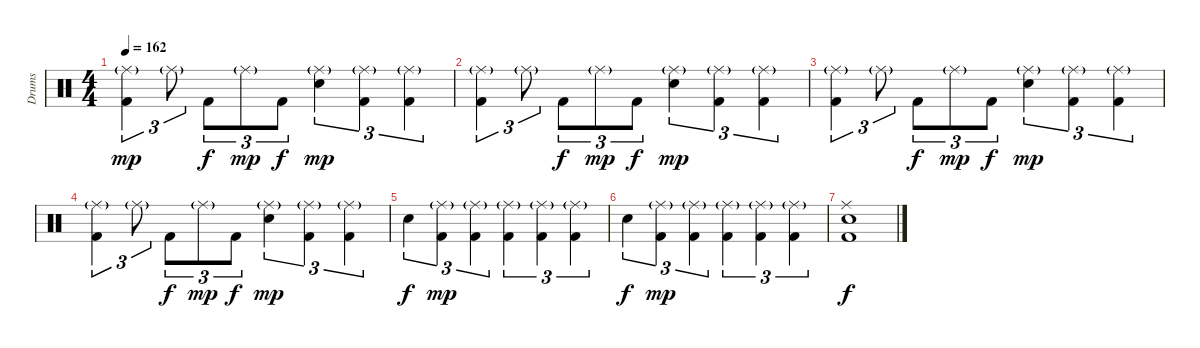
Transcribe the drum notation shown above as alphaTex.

\track ("Drums" "Drums") {instrument percussion}
\staff {score}
\articulation defaults
\ts (4 4)
\tempo 162
\clef neutral
\ks c
("Ride (middle)"{g} "Kick (hit) 2").4{tu (3 2) dy mp} "Ride (middle)"{g}.8{tu (3 2)} "Kick (hit) 2".8{tu (3 2) dy f} "Ride (middle)"{g}.8{tu (3 2) dy mp} "Kick (hit) 2".8{tu (3 2) dy f} ("Ride (middle)"{g} "Electric Snare (hit)").4{tu (3 2) dy mp} ("Ride (middle)"{g} "Kick (hit) 2").4{tu (3 2)} ("Ride (middle)"{g} "Kick (hit) 2").4{tu (3 2)} |
("Ride (middle)"{g} "Kick (hit) 2").4{tu (3 2)} "Ride (middle)"{g}.8{tu (3 2)} "Kick (hit) 2".8{tu (3 2) dy f} "Ride (middle)"{g}.8{tu (3 2) dy mp} "Kick (hit) 2".8{tu (3 2) dy f} ("Ride (middle)"{g} "Electric Snare (hit)").4{tu (3 2) dy mp} ("Ride (middle)"{g} "Kick (hit) 2").4{tu (3 2)} ("Ride (middle)"{g} "Kick (hit) 2").4{tu (3 2)} |
("Ride (middle)"{g} "Kick (hit) 2").4{tu (3 2)} "Ride (middle)"{g}.8{tu (3 2)} "Kick (hit) 2".8{tu (3 2) dy f} "Ride (middle)"{g}.8{tu (3 2) dy mp} "Kick (hit) 2".8{tu (3 2) dy f} ("Ride (middle)"{g} "Electric Snare (hit)").4{tu (3 2) dy mp} ("Ride (middle)"{g} "Kick (hit) 2").4{tu (3 2)} ("Ride (middle)"{g} "Kick (hit) 2").4{tu (3 2)} |
("Ride (middle)"{g} "Kick (hit) 2").4{tu (3 2)} "Ride (middle)"{g}.8{tu (3 2)} "Kick (hit) 2".8{tu (3 2) dy f} "Ride (middle)"{g}.8{tu (3 2) dy mp} "Kick (hit) 2".8{tu (3 2) dy f} ("Ride (middle)"{g} "Electric Snare (hit)").4{tu (3 2) dy mp} ("Ride (middle)"{g} "Kick (hit) 2").4{tu (3 2)} ("Ride (middle)"{g} "Kick (hit) 2").4{tu (3 2)} |
"Electric Snare (hit)".4{tu (3 2) dy f} ("Ride (middle)"{g} "Kick (hit) 2").4{tu (3 2) dy mp} ("Ride (middle)"{g} "Kick (hit) 2").4{tu (3 2)} ("Ride (middle)"{g} "Kick (hit) 2").4{tu (3 2)} ("Ride (middle)"{g} "Kick (hit) 2").4{tu (3 2)} ("Ride (middle)"{g} "Kick (hit) 2").4{tu (3 2)} |
"Electric Snare (hit)".4{tu (3 2) dy f} ("Ride (middle)"{g} "Kick (hit) 2").4{tu (3 2) dy mp} ("Ride (middle)"{g} "Kick (hit) 2").4{tu (3 2)} ("Ride (middle)"{g} "Kick (hit) 2").4{tu (3 2)} ("Ride (middle)"{g} "Kick (hit) 2").4{tu (3 2)} ("Ride (middle)"{g} "Kick (hit) 2").4{tu (3 2)} |
("Ride (middle)" "Electric Snare (hit)" "Kick (hit) 2").1{dy f}
